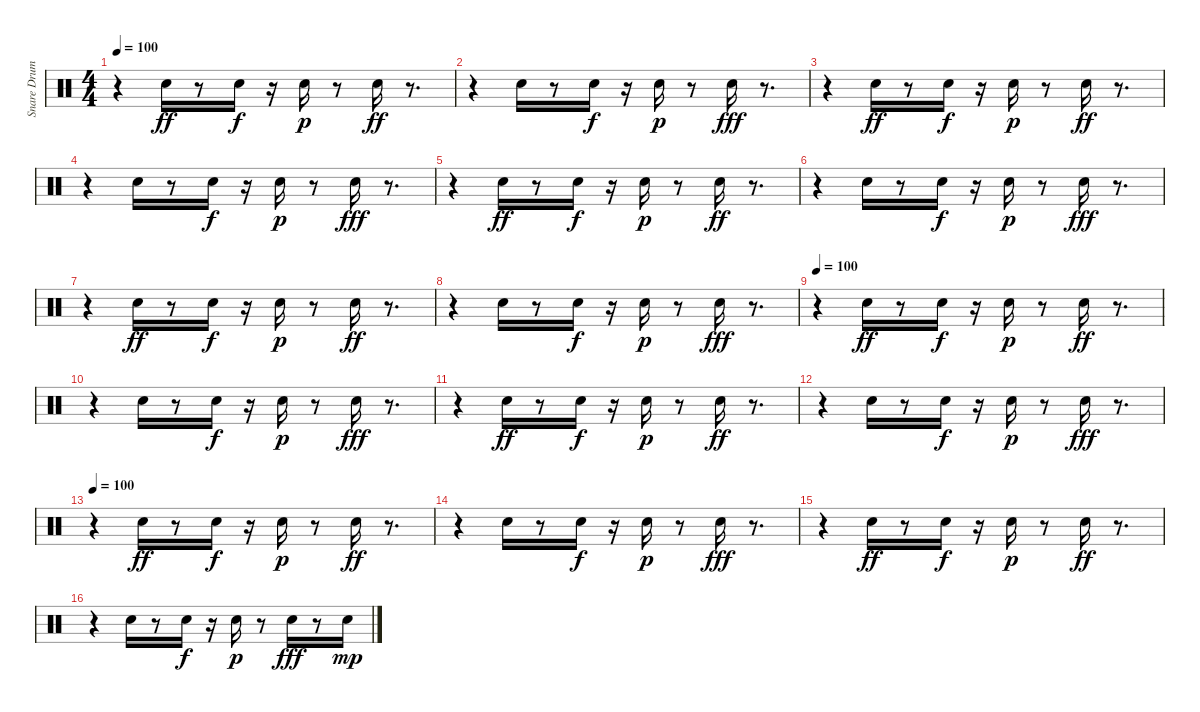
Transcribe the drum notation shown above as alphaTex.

\track ("Snare Drums" "Snare Drum") {instrument percussion}
\staff {score}
\articulation defaults
\ts (4 4)
\tempo 100
\clef neutral
\ks c
r.4{dy mp} "Snare (hit) 2".16{dy ff} r.8 "Electric Snare (hit)".16{dy f} r.16 "Electric Snare (hit)".16{dy p} r.8 "Snare (hit) 2".16{dy ff} r.8{d} |
r.4 "Snare (hit) 2".16 r.8 "Electric Snare (hit)".16{dy f} r.16 "Electric Snare (hit)".16{dy p} r.8 "Snare (hit) 2".16{dy fff} r.8{d} |
r.4 "Snare (hit) 2".16{dy ff} r.8 "Electric Snare (hit)".16{dy f} r.16 "Electric Snare (hit)".16{dy p} r.8 "Snare (hit) 2".16{dy ff} r.8{d} |
r.4 "Snare (hit) 2".16 r.8 "Electric Snare (hit)".16{dy f} r.16 "Electric Snare (hit)".16{dy p} r.8 "Snare (hit) 2".16{dy fff} r.8{d} |
r.4 "Snare (hit) 2".16{dy ff} r.8 "Electric Snare (hit)".16{dy f} r.16 "Electric Snare (hit)".16{dy p} r.8 "Snare (hit) 2".16{dy ff} r.8{d} |
r.4 "Snare (hit) 2".16 r.8 "Electric Snare (hit)".16{dy f} r.16 "Electric Snare (hit)".16{dy p} r.8 "Snare (hit) 2".16{dy fff} r.8{d} |
r.4 "Snare (hit) 2".16{dy ff} r.8 "Electric Snare (hit)".16{dy f} r.16 "Electric Snare (hit)".16{dy p} r.8 "Snare (hit) 2".16{dy ff} r.8{d} |
r.4 "Snare (hit) 2".16 r.8 "Electric Snare (hit)".16{dy f} r.16 "Electric Snare (hit)".16{dy p} r.8 "Snare (hit) 2".16{dy fff} r.8{d} |
\tempo 100
r.4 "Snare (hit) 2".16{dy ff} r.8 "Electric Snare (hit)".16{dy f} r.16 "Electric Snare (hit)".16{dy p} r.8 "Snare (hit) 2".16{dy ff} r.8{d} |
r.4 "Snare (hit) 2".16 r.8 "Electric Snare (hit)".16{dy f} r.16 "Electric Snare (hit)".16{dy p} r.8 "Snare (hit) 2".16{dy fff} r.8{d} |
r.4 "Snare (hit) 2".16{dy ff} r.8 "Electric Snare (hit)".16{dy f} r.16 "Electric Snare (hit)".16{dy p} r.8 "Snare (hit) 2".16{dy ff} r.8{d} |
r.4 "Snare (hit) 2".16 r.8 "Electric Snare (hit)".16{dy f} r.16 "Electric Snare (hit)".16{dy p} r.8 "Snare (hit) 2".16{dy fff} r.8{d} |
\tempo 100
r.4 "Snare (hit) 2".16{dy ff} r.8 "Electric Snare (hit)".16{dy f} r.16 "Electric Snare (hit)".16{dy p} r.8 "Snare (hit) 2".16{dy ff} r.8{d} |
r.4 "Snare (hit) 2".16 r.8 "Electric Snare (hit)".16{dy f} r.16 "Electric Snare (hit)".16{dy p} r.8 "Snare (hit) 2".16{dy fff} r.8{d} |
r.4 "Snare (hit) 2".16{dy ff} r.8 "Electric Snare (hit)".16{dy f} r.16 "Electric Snare (hit)".16{dy p} r.8 "Snare (hit) 2".16{dy ff} r.8{d} |
r.4 "Snare (hit) 2".16 r.8 "Electric Snare (hit)".16{dy f} r.16 "Electric Snare (hit)".16{dy p} r.8 "Snare (hit) 2".16{dy fff} r.8 "Snare (hit) 2".16{dy mp}
